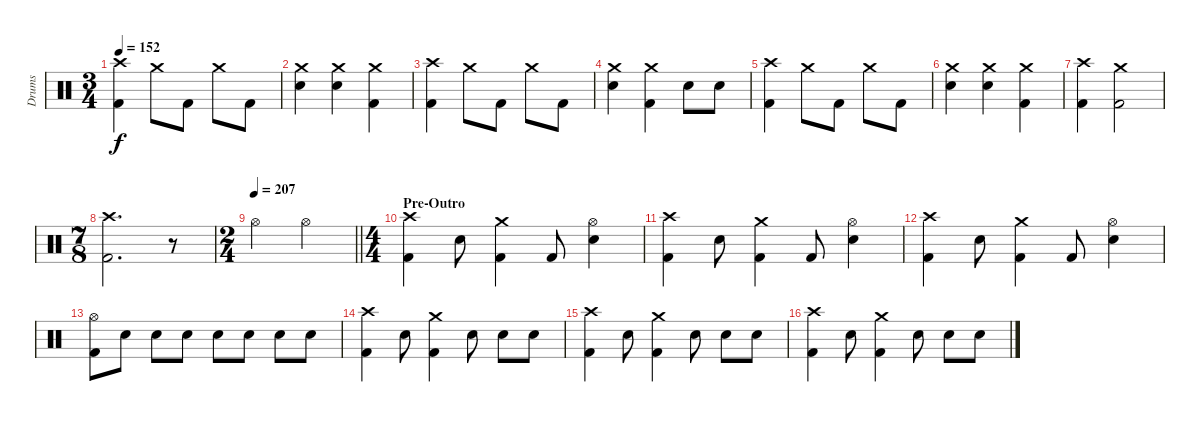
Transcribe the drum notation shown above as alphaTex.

\track ("Drums" "Drums") {instrument percussion}
\staff {score}
\articulation defaults
\ts (3 4)
\tempo 152
\clef neutral
\ks c
("Crash high (hit)" "Kick (hit) 2").4{dy f} "Crash medium (hit)".8 "Kick (hit) 2".8 "Crash medium (hit)".8 "Kick (hit) 2".8 |
("Crash medium (hit)" "Snare (hit) 2").4 ("Crash medium (hit)" "Snare (hit) 2").4 ("Crash medium (hit)" "Kick (hit) 2").4 |
("Crash high (hit)" "Kick (hit) 2").4 "Crash medium (hit)".8 "Kick (hit) 2".8 "Crash medium (hit)".8 "Kick (hit) 2".8 |
("Crash medium (hit)" "Snare (hit) 2").4 ("Crash medium (hit)" "Kick (hit) 2").4 "Snare (hit) 2".8 "Snare (hit) 2".8 |
("Crash high (hit)" "Kick (hit) 2").4 "Crash medium (hit)".8 "Kick (hit) 2".8 "Crash medium (hit)".8 "Kick (hit) 2".8 |
("Crash medium (hit)" "Snare (hit) 2").4 ("Crash medium (hit)" "Snare (hit) 2").4 ("Crash medium (hit)" "Kick (hit) 2").4 |
("Crash high (hit)" "Kick (hit) 2").4 ("Crash medium (hit)" "Kick (hit) 2").2 |
\ts (7 8)
("Crash high (hit)" "Kick (hit) 2").2{d} r.8 |
\ts (2 4)
\tempo 207
\barLineRight lightlight "Hi-Hat (open)".4 "Hi-Hat (open)".4
|
\ts (4 4)
\section ("" "Pre-Outro")
("Crash high (hit)" "Kick (hit) 2").4 "Snare (hit) 2".8 ("Crash medium (hit)" "Kick (hit) 2").4 "Kick (hit) 2".8 ("Hi-Hat (open)" "Snare (hit) 2").4 |
("Crash high (hit)" "Kick (hit) 2").4 "Snare (hit) 2".8 ("Crash medium (hit)" "Kick (hit) 2").4 "Kick (hit) 2".8 ("Hi-Hat (open)" "Snare (hit) 2").4 |
("Crash high (hit)" "Kick (hit) 2").4 "Snare (hit) 2".8 ("Crash medium (hit)" "Kick (hit) 2").4 "Kick (hit) 2".8 ("Hi-Hat (open)" "Snare (hit) 2").4 |
("Hi-Hat (open)" "Kick (hit) 2").8 "Snare (hit) 2".8 "Snare (hit) 2".8 "Snare (hit) 2".8 "Snare (hit) 2".8 "Snare (hit) 2".8 "Snare (hit) 2".8 "Snare (hit) 2".8 |
("Crash high (hit)" "Kick (hit) 2").4 "Snare (hit) 2".8 ("Crash medium (hit)" "Kick (hit) 2").4 "Snare (hit) 2".8 "Snare (hit) 2".8 "Snare (hit) 2".8 |
("Crash high (hit)" "Kick (hit) 2").4 "Snare (hit) 2".8 ("Crash medium (hit)" "Kick (hit) 2").4 "Snare (hit) 2".8 "Snare (hit) 2".8 "Snare (hit) 2".8 |
("Crash high (hit)" "Kick (hit) 2").4 "Snare (hit) 2".8 ("Crash medium (hit)" "Kick (hit) 2").4 "Snare (hit) 2".8 "Snare (hit) 2".8 "Snare (hit) 2".8
